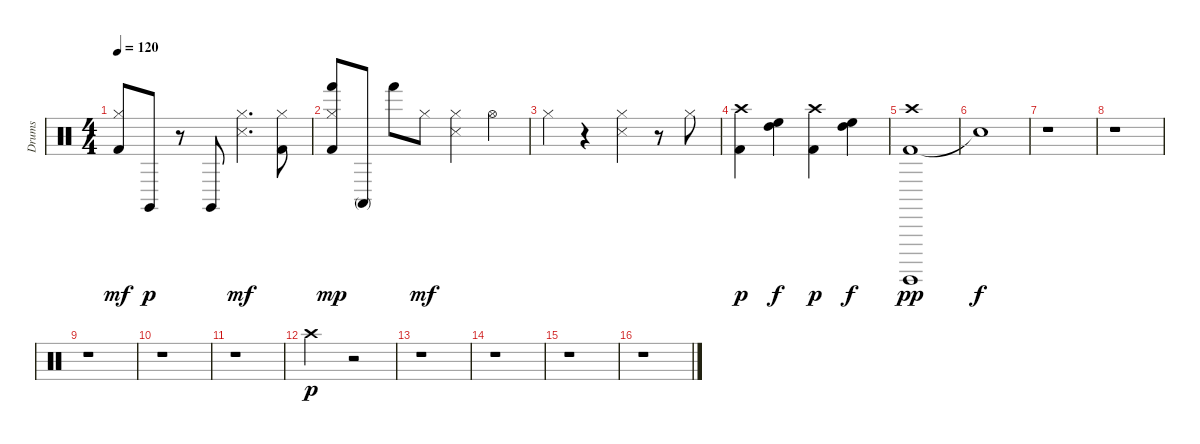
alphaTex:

\track ("Drums" "Drums") {instrument percussion}
\staff {score}
\articulation defaults
\ts (4 4)
\tempo 120
\clef neutral
\ks c
("Kick (hit) 2" "Hi-Hat (closed)").8{dy mf} "Claves (hit)".8{dy p} r.8 "Claves (hit)".8 ("Hi-Hat (closed)" "Snare (side stick) 3").4{d dy mf} ("Kick (hit) 2" "Hi-Hat (closed)").8 |
("Kick (hit) 2" "Hi-Hat (closed)" "Hand (hit)").8{dy mp} "Conga high (mute)".8 "Hand (hit)".8 "Hi-Hat (closed)".8{dy mf} ("Hi-Hat (closed)" "Snare (side stick) 3").4 "Hi-Hat (open)".4 |
"Hi-Hat (closed)".4 r.4 ("Hi-Hat (closed)" "Snare (side stick) 3").4 r.8 "Hi-Hat (closed)".8 |
("Kick (hit) 2" "Crash high (hit)").4{dy p} ("High Floor Tom (hit)" "High Tom (hit)").4{dy f} ("Kick (hit) 2" "Crash high (hit)").4{dy p} ("High Floor Tom (hit)" "High Tom (hit)").4{dy f} |
("Kick (hit) 2" "Crash high (hit)" "Surdo (hit)").1{dy pp} |
"Snare (hit)"{t}.1{dy f} |
r.1 |
r.1 |
r.1 |
r.1 |
r.1 |
"Crash high (hit)".2{dy p} r.2 |
r.1 |
r.1 |
r.1 |
r.1
